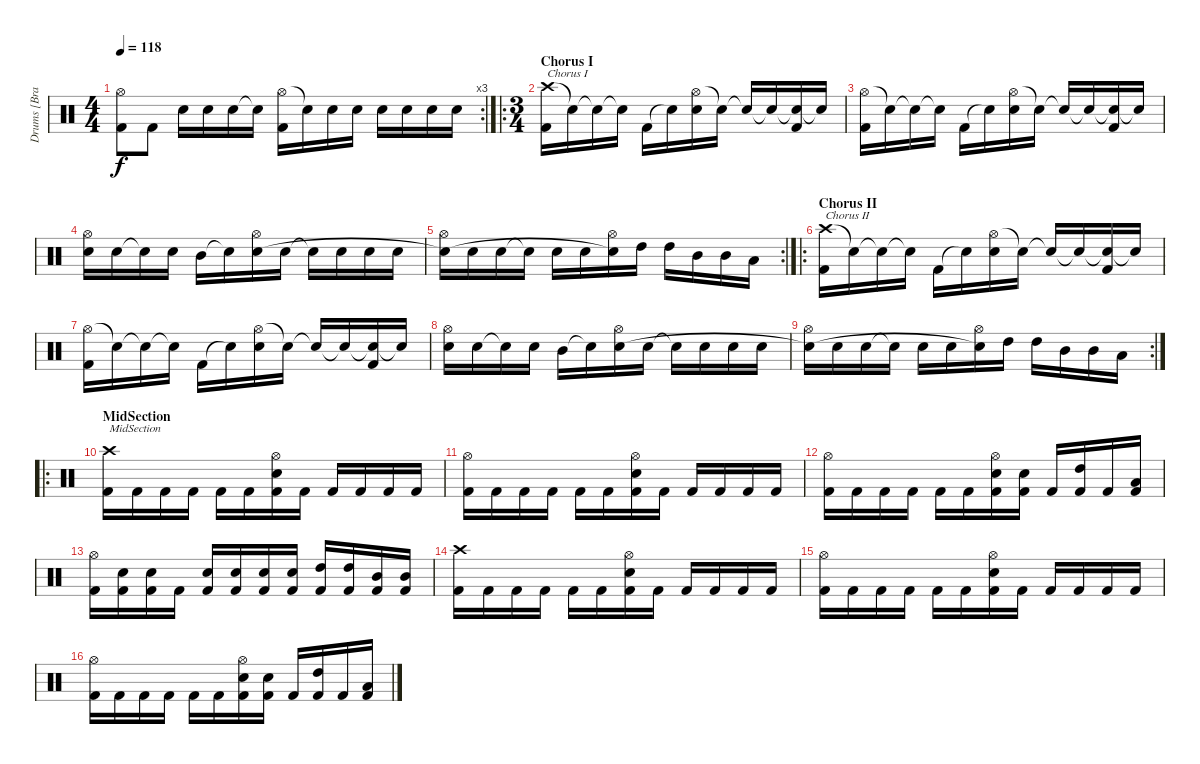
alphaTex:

\track ("Drums [Brann Dailor]" "Drums [Bra") {instrument percussion}
\staff {score}
\articulation defaults
\rc 3
\ts (4 4)
\tempo 118
\clef neutral
\ks c
("Hi-Hat (open)" "Kick (hit) 2").8{dy f} "Kick (hit) 2".8 "Electric Snare (hit)".16 "Electric Snare (hit)".16 "Electric Snare (hit)".16 "Snare (hit)"{t}.16 ("Hi-Hat (open)" "Kick (hit) 2").16 "Snare (hit)"{t}.16 "Electric Snare (hit)".16 "Electric Snare (hit)".16 "Electric Snare (hit)".16 "Electric Snare (hit)".16 "Electric Snare (hit)".16 "Electric Snare (hit)".16 |
\ro
\ts (3 4)
\section ("" "Chorus I")
("Crash high (hit)" "Kick (hit) 2").16{txt "Chorus I"} "Snare (hit)"{t}.16 "Snare (hit)"{t}.16 "Snare (hit)"{t}.16 "Kick (hit) 2".16 "Snare (hit)"{t}.16 ("Hi-Hat (open)" "Electric Snare (hit)").16 "Snare (hit)"{t}.16 "Snare (hit)"{t}.16 "Snare (hit)"{t}.16 ("Snare (hit)"{t} "Kick (hit) 2").16 "Snare (hit)"{t}.16 |
("Hi-Hat (open)" "Kick (hit) 2").16 "Snare (hit)"{t}.16 "Snare (hit)"{t}.16 "Snare (hit)"{t}.16 "Kick (hit) 2".16 "Snare (hit)"{t}.16 ("Hi-Hat (open)" "Electric Snare (hit)").16 "Snare (hit)"{t}.16 "Snare (hit)"{t}.16 "Snare (hit)"{t}.16 ("Snare (hit)"{t} "Kick (hit) 2").16 "Snare (hit)"{t}.16 |
("Hi-Hat (open)" "Electric Snare (hit)").16 "Electric Snare (hit)".16 "Snare (hit)"{t}.16 "Snare (hit)".16 "Mid Tom (hit)".16 "Snare (hit)"{t}.16 ("Hi-Hat (open)" "Electric Snare (hit)").16 "Electric Snare (hit)".16 "Snare (hit)"{t}.16 "Electric Snare (hit)".16 "Electric Snare (hit)".16 "Electric Snare (hit)".16 |
\rc 2
("Hi-Hat (open)" "Snare (hit)"{t}).16 "Electric Snare (hit)".16 "Electric Snare (hit)".16 "Snare (hit)"{t}.16 "Electric Snare (hit)".16 "Electric Snare (hit)".16 ("Hi-Hat (open)" "Snare (hit)"{t}).16 "High Tom (hit)".16 "High Tom (hit)".16 "Mid Tom (hit)".16 "Mid Tom (hit)".16 "Low Tom (hit)".16 |
\ro
\section ("" "Chorus II")
("Crash high (hit)" "Kick (hit) 2").16{txt "Chorus II"} "Snare (hit)"{t}.16 "Snare (hit)"{t}.16 "Snare (hit)"{t}.16 "Kick (hit) 2".16 "Snare (hit)"{t}.16 ("Hi-Hat (open)" "Electric Snare (hit)").16 "Snare (hit)"{t}.16 "Snare (hit)"{t}.16 "Snare (hit)"{t}.16 ("Snare (hit)"{t} "Kick (hit) 2").16 "Snare (hit)"{t}.16 |
("Hi-Hat (open)" "Kick (hit) 2").16 "Snare (hit)"{t}.16 "Snare (hit)"{t}.16 "Snare (hit)"{t}.16 "Kick (hit) 2".16 "Snare (hit)"{t}.16 ("Hi-Hat (open)" "Electric Snare (hit)").16 "Snare (hit)"{t}.16 "Snare (hit)"{t}.16 "Snare (hit)"{t}.16 ("Snare (hit)"{t} "Kick (hit) 2").16 "Snare (hit)"{t}.16 |
("Hi-Hat (open)" "Electric Snare (hit)").16 "Electric Snare (hit)".16 "Snare (hit)"{t}.16 "Snare (hit)".16 "Mid Tom (hit)".16 "Snare (hit)"{t}.16 ("Hi-Hat (open)" "Electric Snare (hit)").16 "Electric Snare (hit)".16 "Snare (hit)"{t}.16 "Electric Snare (hit)".16 "Electric Snare (hit)".16 "Electric Snare (hit)".16 |
\rc 2
("Hi-Hat (open)" "Snare (hit)"{t}).16 "Electric Snare (hit)".16 "Electric Snare (hit)".16 "Snare (hit)"{t}.16 "Electric Snare (hit)".16 "Electric Snare (hit)".16 ("Hi-Hat (open)" "Snare (hit)"{t}).16 "High Tom (hit)".16 "High Tom (hit)".16 "Mid Tom (hit)".16 "Mid Tom (hit)".16 "Low Tom (hit)".16 |
\ro
\section ("" "MidSection")
("Crash high (hit)" "Kick (hit) 2").16{txt "MidSection"} "Kick (hit) 2".16 "Kick (hit) 2".16 "Kick (hit) 2".16 "Kick (hit) 2".16 "Kick (hit) 2".16 ("Hi-Hat (open)" "Electric Snare (hit)" "Kick (hit) 2").16 "Kick (hit) 2".16 "Kick (hit) 2".16 "Kick (hit) 2".16 "Kick (hit) 2".16 "Kick (hit) 2".16 |
("Hi-Hat (open)" "Kick (hit) 2").16 "Kick (hit) 2".16 "Kick (hit) 2".16 "Kick (hit) 2".16 "Kick (hit) 2".16 "Kick (hit) 2".16 ("Hi-Hat (open)" "Electric Snare (hit)" "Kick (hit) 2").16 "Kick (hit) 2".16 "Kick (hit) 2".16 "Kick (hit) 2".16 "Kick (hit) 2".16 "Kick (hit) 2".16 |
("Hi-Hat (open)" "Kick (hit) 2").16 "Kick (hit) 2".16 "Kick (hit) 2".16 "Kick (hit) 2".16 "Kick (hit) 2".16 "Kick (hit) 2".16 ("Hi-Hat (open)" "Electric Snare (hit)" "Kick (hit) 2").16 ("Electric Snare (hit)" "Kick (hit) 2").16 "Kick (hit) 2".16 ("High Tom (hit)" "Kick (hit) 2").16 "Kick (hit) 2".16 ("Low Tom (hit)" "Kick (hit) 2").16 |
("Hi-Hat (open)" "Kick (hit) 2").16 ("Electric Snare (hit)" "Kick (hit) 2").16 ("Electric Snare (hit)" "Kick (hit) 2").16 "Kick (hit) 2".16 ("Electric Snare (hit)" "Kick (hit) 2").16 ("Electric Snare (hit)" "Kick (hit) 2").16 ("Electric Snare (hit)" "Kick (hit) 2").16 ("Electric Snare (hit)" "Kick (hit) 2").16 ("High Tom (hit)" "Kick (hit) 2").16 ("High Tom (hit)" "Kick (hit) 2").16 ("Mid Tom (hit)" "Kick (hit) 2").16 ("Mid Tom (hit)" "Kick (hit) 2").16 |
("Crash high (hit)" "Kick (hit) 2").16 "Kick (hit) 2".16 "Kick (hit) 2".16 "Kick (hit) 2".16 "Kick (hit) 2".16 "Kick (hit) 2".16 ("Hi-Hat (open)" "Electric Snare (hit)" "Kick (hit) 2").16 "Kick (hit) 2".16 "Kick (hit) 2".16 "Kick (hit) 2".16 "Kick (hit) 2".16 "Kick (hit) 2".16 |
("Hi-Hat (open)" "Kick (hit) 2").16 "Kick (hit) 2".16 "Kick (hit) 2".16 "Kick (hit) 2".16 "Kick (hit) 2".16 "Kick (hit) 2".16 ("Hi-Hat (open)" "Electric Snare (hit)" "Kick (hit) 2").16 "Kick (hit) 2".16 "Kick (hit) 2".16 "Kick (hit) 2".16 "Kick (hit) 2".16 "Kick (hit) 2".16 |
("Hi-Hat (open)" "Kick (hit) 2").16 "Kick (hit) 2".16 "Kick (hit) 2".16 "Kick (hit) 2".16 "Kick (hit) 2".16 "Kick (hit) 2".16 ("Hi-Hat (open)" "Electric Snare (hit)" "Kick (hit) 2").16 ("Electric Snare (hit)" "Kick (hit) 2").16 "Kick (hit) 2".16 ("High Tom (hit)" "Kick (hit) 2").16 "Kick (hit) 2".16 ("Low Tom (hit)" "Kick (hit) 2").16
